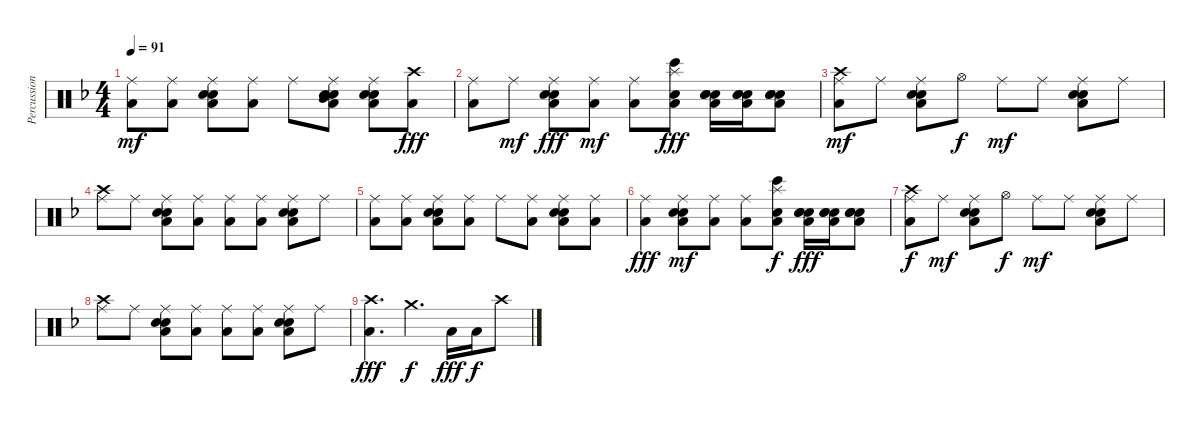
\track ("Percussion" "Percussion") {instrument percussion}
\staff {score}
\articulation defaults
\ts (4 4)
\tempo 91
\clef neutral
\ks f
("Low Floor Tom (hit)" "Ride (middle)").8{dy mf} ("Low Floor Tom (hit)" "Ride (middle)").8 ("Electric Snare (hit)" "Low Floor Tom (hit)" "Snare (hit) 2" "Ride (middle)").8 ("Low Floor Tom (hit)" "Ride (middle)").8 "Ride (middle)".8 ("Electric Snare (hit)" "Low Floor Tom (hit)" "Mid Tom (hit)" "Snare (hit) 2" "Ride (middle)").8 ("Electric Snare (hit)" "Low Floor Tom (hit)" "Snare (hit) 2" "Ride (middle)").8 ("Low Floor Tom (hit)" "Crash high (hit)").8{dy fff} |
("Ride (middle)" "Low Floor Tom (hit)").8 "Ride (middle)".8{dy mf} ("Electric Snare (hit)" "Low Floor Tom (hit)" "Ride (middle)" "Snare (hit) 2").8{dy fff} ("Low Floor Tom (hit)" "Ride (middle)").8{dy mf} ("Low Floor Tom (hit)" "Ride (middle)").8 ("Bongo High (hit)" "Low Floor Tom (hit)" "Snare (hit) 2" "Splash (hit)").8{dy fff} ("Low Floor Tom (hit)" "Snare (hit) 2" "Electric Snare (hit)" "Hand Clap (hit)").16 ("Low Floor Tom (hit)" "Snare (hit) 2" "Electric Snare (hit)" "Hand Clap (hit)").16 ("Low Floor Tom (hit)" "Snare (hit) 2" "Electric Snare (hit)" "Hand Clap (hit)").8 |
("Low Floor Tom (hit)" "Crash high (hit)" "Ride (middle)").8{dy mf} "Ride (middle)".8 ("Low Floor Tom (hit)" "Snare (hit) 2" "Electric Snare (hit)" "Ride (middle)").8 "Hi-Hat (open)".8{dy f} "Ride (middle)".8{dy mf} "Ride (middle)".8 ("Electric Snare (hit)" "Snare (hit) 2" "Low Floor Tom (hit)" "Ride (middle)").8 "Ride (middle)".8 |
("Crash high (hit)" "Ride (middle)").8 "Ride (middle)".8 ("Low Floor Tom (hit)" "Snare (hit) 2" "Electric Snare (hit)" "Ride (middle)").8 ("Low Floor Tom (hit)" "Ride (middle)").8 ("Low Floor Tom (hit)" "Ride (middle)").8 ("Low Floor Tom (hit)" "Ride (middle)").8 ("Electric Snare (hit)" "Low Floor Tom (hit)" "Snare (hit) 2" "Ride (middle)").8 "Ride (middle)".8 |
("Low Floor Tom (hit)" "Ride (middle)").8 ("Low Floor Tom (hit)" "Ride (middle)").8 ("Electric Snare (hit)" "Low Floor Tom (hit)" "Snare (hit) 2" "Ride (middle)").8 ("Low Floor Tom (hit)" "Ride (middle)").8 "Ride (middle)".8 ("Low Floor Tom (hit)" "Ride (middle)").8 ("Electric Snare (hit)" "Low Floor Tom (hit)" "Snare (hit) 2" "Ride (middle)").8 ("Low Floor Tom (hit)" "Ride (middle)").8 |
("Ride (middle)" "Low Floor Tom (hit)").4{dy fff} ("Electric Snare (hit)" "Low Floor Tom (hit)" "Snare (hit) 2" "Ride (middle)").8{dy mf} ("Low Floor Tom (hit)" "Ride (middle)").8 ("Low Floor Tom (hit)" "Ride (middle)").8 ("Bongo High (hit)" "Low Floor Tom (hit)" "Snare (hit) 2" "Splash (hit)").8{dy f} ("Low Floor Tom (hit)" "Snare (hit) 2" "Electric Snare (hit)" "Hand Clap (hit)").16{dy fff} ("Low Floor Tom (hit)" "Snare (hit) 2" "Electric Snare (hit)" "Hand Clap (hit)").16 ("Low Floor Tom (hit)" "Snare (hit) 2" "Electric Snare (hit)" "Hand Clap (hit)").8 |
("Low Floor Tom (hit)" "Crash high (hit)" "Ride (middle)").8{dy f} "Ride (middle)".8{dy mf} ("Low Floor Tom (hit)" "Snare (hit) 2" "Electric Snare (hit)" "Ride (middle)").8 "Hi-Hat (open)".8{dy f} "Ride (middle)".8{dy mf} "Ride (middle)".8 ("Electric Snare (hit)" "Snare (hit) 2" "Low Floor Tom (hit)" "Ride (middle)").8 "Ride (middle)".8 |
("Crash high (hit)" "Ride (middle)").8 "Ride (middle)".8 ("Low Floor Tom (hit)" "Snare (hit) 2" "Electric Snare (hit)" "Ride (middle)").8 ("Low Floor Tom (hit)" "Ride (middle)").8 ("Low Floor Tom (hit)" "Ride (middle)").8 ("Low Floor Tom (hit)" "Ride (middle)").8 ("Electric Snare (hit)" "Low Floor Tom (hit)" "Snare (hit) 2" "Ride (middle)").8 "Ride (middle)".8 |
("Low Floor Tom (hit)" "Crash high (hit)").4{d dy fff} "Crash medium (hit)".4{d dy f} "Low Floor Tom (hit)".16{dy fff} "Low Floor Tom (hit)".16{dy f} "Crash high (hit)".8
